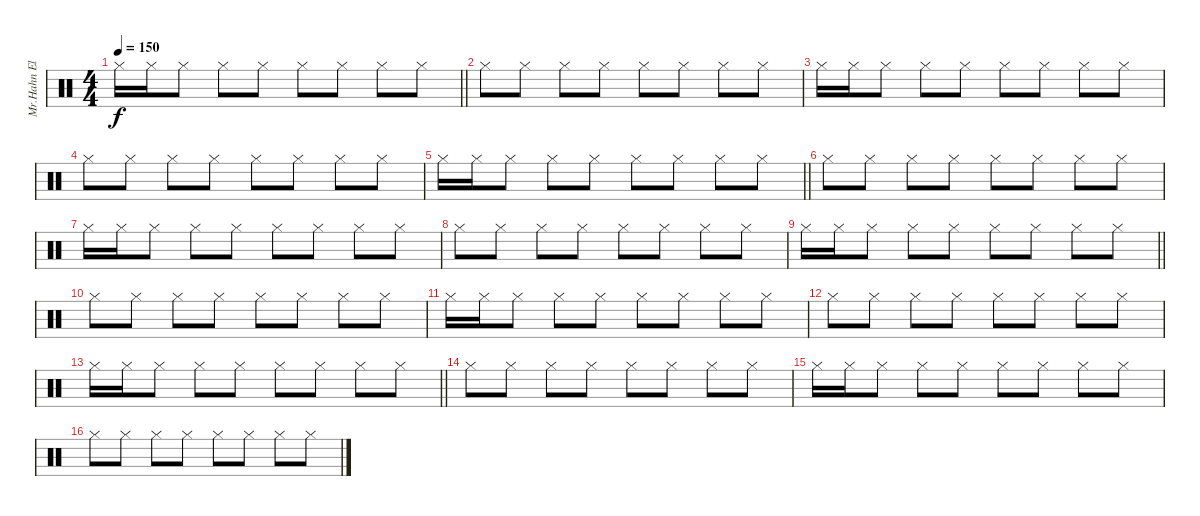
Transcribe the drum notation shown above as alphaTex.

\track ("Mr.Hahn Eletronic Drums" "Mr.Hahn El") {instrument percussion}
\staff {score}
\articulation defaults
\ts (4 4)
\tempo 150
\clef neutral
\barLineRight lightlight
\ks c "Hi-Hat (closed)".16{dy f} "Hi-Hat (closed)".16 "Hi-Hat (closed)".8 "Hi-Hat (closed)".8 "Hi-Hat (closed)".8 "Hi-Hat (closed)".8 "Hi-Hat (closed)".8 "Hi-Hat (closed)".8 "Hi-Hat (closed)".8
|
"Hi-Hat (closed)".8 "Hi-Hat (closed)".8 "Hi-Hat (closed)".8 "Hi-Hat (closed)".8 "Hi-Hat (closed)".8 "Hi-Hat (closed)".8 "Hi-Hat (closed)".8 "Hi-Hat (closed)".8 |
"Hi-Hat (closed)".16 "Hi-Hat (closed)".16 "Hi-Hat (closed)".8 "Hi-Hat (closed)".8 "Hi-Hat (closed)".8 "Hi-Hat (closed)".8 "Hi-Hat (closed)".8 "Hi-Hat (closed)".8 "Hi-Hat (closed)".8 |
"Hi-Hat (closed)".8 "Hi-Hat (closed)".8 "Hi-Hat (closed)".8 "Hi-Hat (closed)".8 "Hi-Hat (closed)".8 "Hi-Hat (closed)".8 "Hi-Hat (closed)".8 "Hi-Hat (closed)".8 |
\barLineRight lightlight "Hi-Hat (closed)".16 "Hi-Hat (closed)".16 "Hi-Hat (closed)".8 "Hi-Hat (closed)".8 "Hi-Hat (closed)".8 "Hi-Hat (closed)".8 "Hi-Hat (closed)".8 "Hi-Hat (closed)".8 "Hi-Hat (closed)".8
|
"Hi-Hat (closed)".8 "Hi-Hat (closed)".8 "Hi-Hat (closed)".8 "Hi-Hat (closed)".8 "Hi-Hat (closed)".8 "Hi-Hat (closed)".8 "Hi-Hat (closed)".8 "Hi-Hat (closed)".8 |
"Hi-Hat (closed)".16 "Hi-Hat (closed)".16 "Hi-Hat (closed)".8 "Hi-Hat (closed)".8 "Hi-Hat (closed)".8 "Hi-Hat (closed)".8 "Hi-Hat (closed)".8 "Hi-Hat (closed)".8 "Hi-Hat (closed)".8 |
"Hi-Hat (closed)".8 "Hi-Hat (closed)".8 "Hi-Hat (closed)".8 "Hi-Hat (closed)".8 "Hi-Hat (closed)".8 "Hi-Hat (closed)".8 "Hi-Hat (closed)".8 "Hi-Hat (closed)".8 |
\barLineRight lightlight "Hi-Hat (closed)".16 "Hi-Hat (closed)".16 "Hi-Hat (closed)".8 "Hi-Hat (closed)".8 "Hi-Hat (closed)".8 "Hi-Hat (closed)".8 "Hi-Hat (closed)".8 "Hi-Hat (closed)".8 "Hi-Hat (closed)".8
|
"Hi-Hat (closed)".8 "Hi-Hat (closed)".8 "Hi-Hat (closed)".8 "Hi-Hat (closed)".8 "Hi-Hat (closed)".8 "Hi-Hat (closed)".8 "Hi-Hat (closed)".8 "Hi-Hat (closed)".8 |
"Hi-Hat (closed)".16 "Hi-Hat (closed)".16 "Hi-Hat (closed)".8 "Hi-Hat (closed)".8 "Hi-Hat (closed)".8 "Hi-Hat (closed)".8 "Hi-Hat (closed)".8 "Hi-Hat (closed)".8 "Hi-Hat (closed)".8 |
"Hi-Hat (closed)".8 "Hi-Hat (closed)".8 "Hi-Hat (closed)".8 "Hi-Hat (closed)".8 "Hi-Hat (closed)".8 "Hi-Hat (closed)".8 "Hi-Hat (closed)".8 "Hi-Hat (closed)".8 |
\barLineRight lightlight "Hi-Hat (closed)".16 "Hi-Hat (closed)".16 "Hi-Hat (closed)".8 "Hi-Hat (closed)".8 "Hi-Hat (closed)".8 "Hi-Hat (closed)".8 "Hi-Hat (closed)".8 "Hi-Hat (closed)".8 "Hi-Hat (closed)".8
|
"Hi-Hat (closed)".8 "Hi-Hat (closed)".8 "Hi-Hat (closed)".8 "Hi-Hat (closed)".8 "Hi-Hat (closed)".8 "Hi-Hat (closed)".8 "Hi-Hat (closed)".8 "Hi-Hat (closed)".8 |
"Hi-Hat (closed)".16 "Hi-Hat (closed)".16 "Hi-Hat (closed)".8 "Hi-Hat (closed)".8 "Hi-Hat (closed)".8 "Hi-Hat (closed)".8 "Hi-Hat (closed)".8 "Hi-Hat (closed)".8 "Hi-Hat (closed)".8 |
"Hi-Hat (closed)".8 "Hi-Hat (closed)".8 "Hi-Hat (closed)".8 "Hi-Hat (closed)".8 "Hi-Hat (closed)".8 "Hi-Hat (closed)".8 "Hi-Hat (closed)".8 "Hi-Hat (closed)".8
